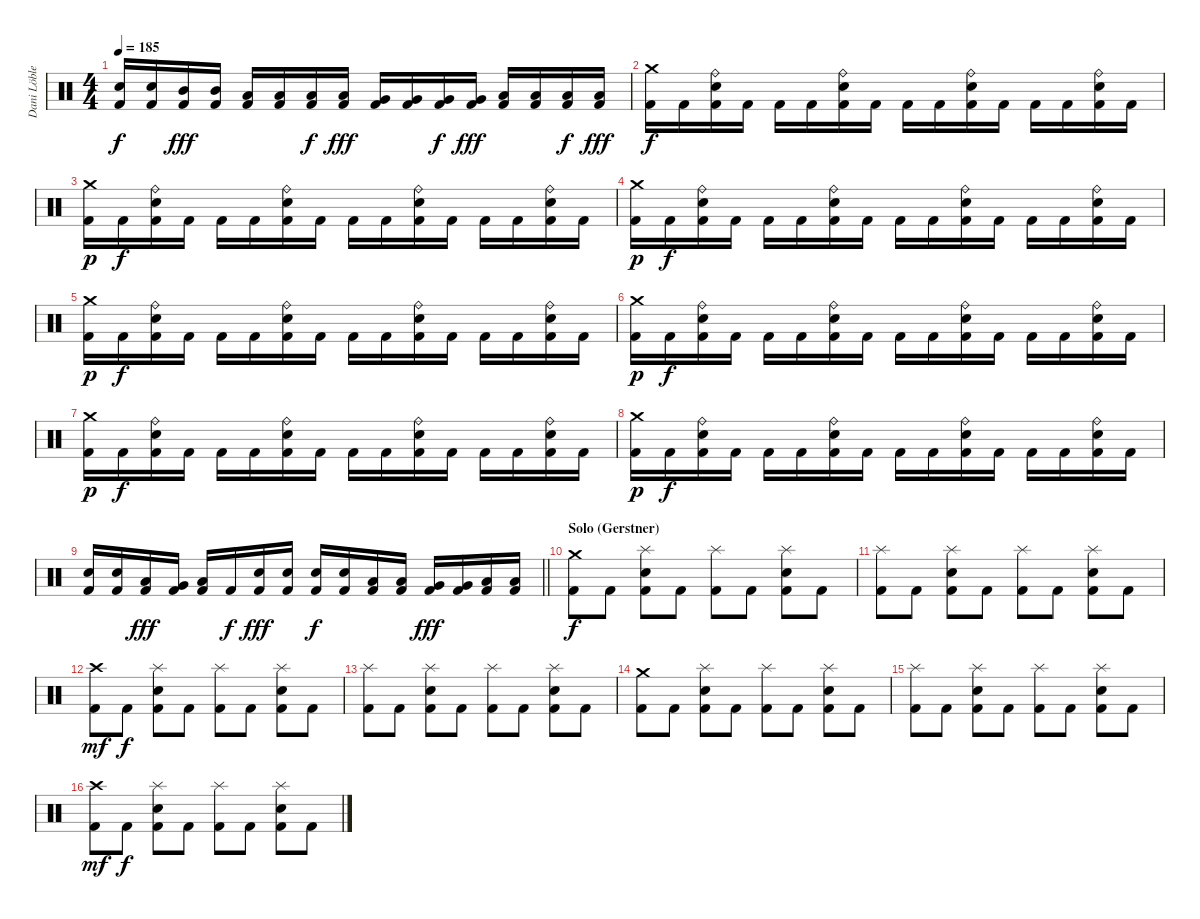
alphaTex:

\track ("Dani Löble" "Dani Löble") {instrument percussion}
\staff {score}
\articulation defaults
\ts (4 4)
\tempo 185
\clef neutral
\ks c
("Electric Snare (hit)" "Kick (hit) 2").16{dy f} ("Electric Snare (hit)" "Kick (hit) 2").16 ("Mid Tom (hit)" "Kick (hit) 2").16{dy fff} ("Mid Tom (hit)" "Kick (hit) 2").16 ("Low Tom (hit)" "Kick (hit) 2").16 ("Low Tom (hit)" "Kick (hit) 2").16 ("Low Tom (hit)" "Kick (hit) 2").16{dy f} ("Low Tom (hit)" "Kick (hit) 2").16{dy fff} ("Very Low Tom (hit)" "Kick (hit) 2").16 ("Very Low Tom (hit)" "Kick (hit) 2").16 ("Very Low Tom (hit)" "Kick (hit) 2").16{dy f} ("Very Low Tom (hit)" "Kick (hit) 2").16{dy fff} ("Low Floor Tom (hit)" "Kick (hit) 2").16 ("Low Floor Tom (hit)" "Kick (hit) 2").16 ("Low Floor Tom (hit)" "Kick (hit) 2").16{dy f} ("Low Floor Tom (hit)" "Kick (hit) 2").16{dy fff} |
("Crash medium (hit)" "Kick (hit) 2").16{dy f} "Kick (hit) 2".16 ("Ride (bell)" "Electric Snare (hit)" "Kick (hit) 2").16 "Kick (hit) 2".16 "Kick (hit) 2".16 "Kick (hit) 2".16 ("Ride (bell)" "Electric Snare (hit)" "Kick (hit) 2").16 "Kick (hit) 2".16 "Kick (hit) 2".16 "Kick (hit) 2".16 ("Ride (bell)" "Electric Snare (hit)" "Kick (hit) 2").16 "Kick (hit) 2".16 "Kick (hit) 2".16 "Kick (hit) 2".16 ("Ride (bell)" "Electric Snare (hit)" "Kick (hit) 2").16 "Kick (hit) 2".16 |
("Crash medium (hit)" "Kick (hit) 2").16{dy p} "Kick (hit) 2".16{dy f} ("Ride (bell)" "Electric Snare (hit)" "Kick (hit) 2").16 "Kick (hit) 2".16 "Kick (hit) 2".16 "Kick (hit) 2".16 ("Ride (bell)" "Electric Snare (hit)" "Kick (hit) 2").16 "Kick (hit) 2".16 "Kick (hit) 2".16 "Kick (hit) 2".16 ("Ride (bell)" "Electric Snare (hit)" "Kick (hit) 2").16 "Kick (hit) 2".16 "Kick (hit) 2".16 "Kick (hit) 2".16 ("Ride (bell)" "Electric Snare (hit)" "Kick (hit) 2").16 "Kick (hit) 2".16 |
("Crash medium (hit)" "Kick (hit) 2").16{dy p} "Kick (hit) 2".16{dy f} ("Ride (bell)" "Electric Snare (hit)" "Kick (hit) 2").16 "Kick (hit) 2".16 "Kick (hit) 2".16 "Kick (hit) 2".16 ("Ride (bell)" "Electric Snare (hit)" "Kick (hit) 2").16 "Kick (hit) 2".16 "Kick (hit) 2".16 "Kick (hit) 2".16 ("Ride (bell)" "Electric Snare (hit)" "Kick (hit) 2").16 "Kick (hit) 2".16 "Kick (hit) 2".16 "Kick (hit) 2".16 ("Ride (bell)" "Electric Snare (hit)" "Kick (hit) 2").16 "Kick (hit) 2".16 |
("Crash medium (hit)" "Kick (hit) 2").16{dy p} "Kick (hit) 2".16{dy f} ("Ride (bell)" "Electric Snare (hit)" "Kick (hit) 2").16 "Kick (hit) 2".16 "Kick (hit) 2".16 "Kick (hit) 2".16 ("Ride (bell)" "Electric Snare (hit)" "Kick (hit) 2").16 "Kick (hit) 2".16 "Kick (hit) 2".16 "Kick (hit) 2".16 ("Ride (bell)" "Electric Snare (hit)" "Kick (hit) 2").16 "Kick (hit) 2".16 "Kick (hit) 2".16 "Kick (hit) 2".16 ("Ride (bell)" "Electric Snare (hit)" "Kick (hit) 2").16 "Kick (hit) 2".16 |
("Crash medium (hit)" "Kick (hit) 2").16{dy p} "Kick (hit) 2".16{dy f} ("Ride (bell)" "Electric Snare (hit)" "Kick (hit) 2").16 "Kick (hit) 2".16 "Kick (hit) 2".16 "Kick (hit) 2".16 ("Ride (bell)" "Electric Snare (hit)" "Kick (hit) 2").16 "Kick (hit) 2".16 "Kick (hit) 2".16 "Kick (hit) 2".16 ("Ride (bell)" "Electric Snare (hit)" "Kick (hit) 2").16 "Kick (hit) 2".16 "Kick (hit) 2".16 "Kick (hit) 2".16 ("Ride (bell)" "Electric Snare (hit)" "Kick (hit) 2").16 "Kick (hit) 2".16 |
("Crash medium (hit)" "Kick (hit) 2").16{dy p} "Kick (hit) 2".16{dy f} ("Ride (bell)" "Electric Snare (hit)" "Kick (hit) 2").16 "Kick (hit) 2".16 "Kick (hit) 2".16 "Kick (hit) 2".16 ("Ride (bell)" "Electric Snare (hit)" "Kick (hit) 2").16 "Kick (hit) 2".16 "Kick (hit) 2".16 "Kick (hit) 2".16 ("Ride (bell)" "Electric Snare (hit)" "Kick (hit) 2").16 "Kick (hit) 2".16 "Kick (hit) 2".16 "Kick (hit) 2".16 ("Ride (bell)" "Electric Snare (hit)" "Kick (hit) 2").16 "Kick (hit) 2".16 |
("Crash medium (hit)" "Kick (hit) 2").16{dy p} "Kick (hit) 2".16{dy f} ("Ride (bell)" "Electric Snare (hit)" "Kick (hit) 2").16 "Kick (hit) 2".16 "Kick (hit) 2".16 "Kick (hit) 2".16 ("Ride (bell)" "Electric Snare (hit)" "Kick (hit) 2").16 "Kick (hit) 2".16 "Kick (hit) 2".16 "Kick (hit) 2".16 ("Ride (bell)" "Electric Snare (hit)" "Kick (hit) 2").16 "Kick (hit) 2".16 "Kick (hit) 2".16 "Kick (hit) 2".16 ("Ride (bell)" "Electric Snare (hit)" "Kick (hit) 2").16 "Kick (hit) 2".16 |
\barLineRight lightlight
("Electric Snare (hit)" "Kick (hit) 2").16 ("Electric Snare (hit)" "Kick (hit) 2").16 ("Low Tom (hit)" "Kick (hit) 2").16{dy fff} ("Very Low Tom (hit)" "Kick (hit) 2").16 ("Low Floor Tom (hit)" "Kick (hit) 2").16 "Kick (hit) 2".16{dy f} ("Electric Snare (hit)" "Kick (hit) 2").16{dy fff} ("Electric Snare (hit)" "Kick (hit) 2").16 ("Electric Snare (hit)" "Kick (hit) 2").16{dy f} ("Electric Snare (hit)" "Kick (hit) 2").16 ("Low Tom (hit)" "Kick (hit) 2").16 ("Low Tom (hit)" "Kick (hit) 2").16 ("Very Low Tom (hit)" "Kick (hit) 2").16{dy fff} ("Very Low Tom (hit)" "Kick (hit) 2").16 ("Low Floor Tom (hit)" "Kick (hit) 2").16 ("Low Floor Tom (hit)" "Kick (hit) 2").16 |
\section ("" "Solo (Gerstner)")
("Crash medium (hit)" "Kick (hit) 2").8{dy f} "Kick (hit) 2".8 ("Splash (hit)" "Electric Snare (hit)" "Kick (hit) 2").8 "Kick (hit) 2".8 ("Splash (hit)" "Kick (hit) 2").8 "Kick (hit) 2".8 ("Splash (hit)" "Electric Snare (hit)" "Kick (hit) 2").8 "Kick (hit) 2".8 |
("Splash (hit)" "Kick (hit) 2").8 "Kick (hit) 2".8 ("Splash (hit)" "Electric Snare (hit)" "Kick (hit) 2").8 "Kick (hit) 2".8 ("Splash (hit)" "Kick (hit) 2").8 "Kick (hit) 2".8 ("Splash (hit)" "Electric Snare (hit)" "Kick (hit) 2").8 "Kick (hit) 2".8 |
("Crash high (hit)" "Kick (hit) 2").8{dy mf} "Kick (hit) 2".8{dy f} ("Splash (hit)" "Electric Snare (hit)" "Kick (hit) 2").8 "Kick (hit) 2".8 ("Splash (hit)" "Kick (hit) 2").8 "Kick (hit) 2".8 ("Splash (hit)" "Electric Snare (hit)" "Kick (hit) 2").8 "Kick (hit) 2".8 |
("Splash (hit)" "Kick (hit) 2").8 "Kick (hit) 2".8 ("Splash (hit)" "Electric Snare (hit)" "Kick (hit) 2").8 "Kick (hit) 2".8 ("Splash (hit)" "Kick (hit) 2").8 "Kick (hit) 2".8 ("Splash (hit)" "Electric Snare (hit)" "Kick (hit) 2").8 "Kick (hit) 2".8 |
("Crash medium (hit)" "Kick (hit) 2").8 "Kick (hit) 2".8 ("Splash (hit)" "Electric Snare (hit)" "Kick (hit) 2").8 "Kick (hit) 2".8 ("Splash (hit)" "Kick (hit) 2").8 "Kick (hit) 2".8 ("Splash (hit)" "Electric Snare (hit)" "Kick (hit) 2").8 "Kick (hit) 2".8 |
("Splash (hit)" "Kick (hit) 2").8 "Kick (hit) 2".8 ("Splash (hit)" "Electric Snare (hit)" "Kick (hit) 2").8 "Kick (hit) 2".8 ("Splash (hit)" "Kick (hit) 2").8 "Kick (hit) 2".8 ("Splash (hit)" "Electric Snare (hit)" "Kick (hit) 2").8 "Kick (hit) 2".8 |
("Crash high (hit)" "Kick (hit) 2").8{dy mf} "Kick (hit) 2".8{dy f} ("Splash (hit)" "Electric Snare (hit)" "Kick (hit) 2").8 "Kick (hit) 2".8 ("Splash (hit)" "Kick (hit) 2").8 "Kick (hit) 2".8 ("Splash (hit)" "Electric Snare (hit)" "Kick (hit) 2").8 "Kick (hit) 2".8
